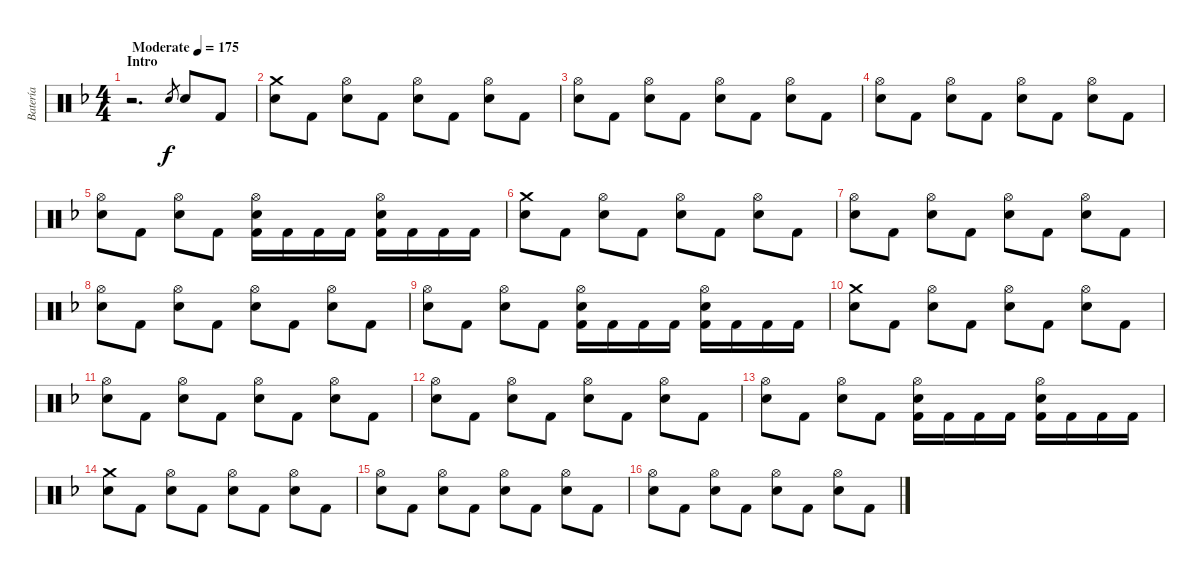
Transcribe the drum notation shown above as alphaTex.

\track ("Batería" "Batería") {instrument percussion}
\staff {score}
\articulation defaults
\ts (4 4)
\section ("" "Intro")
\tempo (175 "Moderate")
\clef neutral
\ks dminor
r.2{d dy f} "Snare (hit) 2".8{gr} "Snare (hit) 2".8 "Kick (hit) 2".8 |
("Crash medium (hit)" "Snare (hit) 2").8 "Kick (hit) 2".8 ("Hi-Hat (open)" "Snare (hit) 2").8 "Kick (hit) 2".8 ("Hi-Hat (open)" "Snare (hit) 2").8 "Kick (hit) 2".8 ("Hi-Hat (open)" "Snare (hit) 2").8 "Kick (hit) 2".8 |
("Hi-Hat (open)" "Snare (hit) 2").8 "Kick (hit) 2".8 ("Hi-Hat (open)" "Snare (hit) 2").8 "Kick (hit) 2".8 ("Hi-Hat (open)" "Snare (hit) 2").8 "Kick (hit) 2".8 ("Hi-Hat (open)" "Snare (hit) 2").8 "Kick (hit) 2".8 |
("Hi-Hat (open)" "Snare (hit) 2").8 "Kick (hit) 2".8 ("Hi-Hat (open)" "Snare (hit) 2").8 "Kick (hit) 2".8 ("Hi-Hat (open)" "Snare (hit) 2").8 "Kick (hit) 2".8 ("Hi-Hat (open)" "Snare (hit) 2").8 "Kick (hit) 2".8 |
("Hi-Hat (open)" "Snare (hit) 2").8 "Kick (hit) 2".8 ("Hi-Hat (open)" "Snare (hit) 2").8 "Kick (hit) 2".8 ("Hi-Hat (open)" "Snare (hit) 2" "Kick (hit) 2").16 "Kick (hit) 2".16 "Kick (hit) 2".16 "Kick (hit) 2".16 ("Hi-Hat (open)" "Snare (hit) 2" "Kick (hit) 2").16 "Kick (hit) 2".16 "Kick (hit) 2".16 "Kick (hit) 2".16 |
("Crash medium (hit)" "Snare (hit) 2").8 "Kick (hit) 2".8 ("Hi-Hat (open)" "Snare (hit) 2").8 "Kick (hit) 2".8 ("Hi-Hat (open)" "Snare (hit) 2").8 "Kick (hit) 2".8 ("Hi-Hat (open)" "Snare (hit) 2").8 "Kick (hit) 2".8 |
("Hi-Hat (open)" "Snare (hit) 2").8 "Kick (hit) 2".8 ("Hi-Hat (open)" "Snare (hit) 2").8 "Kick (hit) 2".8 ("Hi-Hat (open)" "Snare (hit) 2").8 "Kick (hit) 2".8 ("Hi-Hat (open)" "Snare (hit) 2").8 "Kick (hit) 2".8 |
("Hi-Hat (open)" "Snare (hit) 2").8 "Kick (hit) 2".8 ("Hi-Hat (open)" "Snare (hit) 2").8 "Kick (hit) 2".8 ("Hi-Hat (open)" "Snare (hit) 2").8 "Kick (hit) 2".8 ("Hi-Hat (open)" "Snare (hit) 2").8 "Kick (hit) 2".8 |
("Hi-Hat (open)" "Snare (hit) 2").8 "Kick (hit) 2".8 ("Hi-Hat (open)" "Snare (hit) 2").8 "Kick (hit) 2".8 ("Hi-Hat (open)" "Snare (hit) 2" "Kick (hit) 2").16 "Kick (hit) 2".16 "Kick (hit) 2".16 "Kick (hit) 2".16 ("Hi-Hat (open)" "Snare (hit) 2" "Kick (hit) 2").16 "Kick (hit) 2".16 "Kick (hit) 2".16 "Kick (hit) 2".16 |
("Crash medium (hit)" "Snare (hit) 2").8 "Kick (hit) 2".8 ("Hi-Hat (open)" "Snare (hit) 2").8 "Kick (hit) 2".8 ("Hi-Hat (open)" "Snare (hit) 2").8 "Kick (hit) 2".8 ("Hi-Hat (open)" "Snare (hit) 2").8 "Kick (hit) 2".8 |
("Hi-Hat (open)" "Snare (hit) 2").8 "Kick (hit) 2".8 ("Hi-Hat (open)" "Snare (hit) 2").8 "Kick (hit) 2".8 ("Hi-Hat (open)" "Snare (hit) 2").8 "Kick (hit) 2".8 ("Hi-Hat (open)" "Snare (hit) 2").8 "Kick (hit) 2".8 |
("Hi-Hat (open)" "Snare (hit) 2").8 "Kick (hit) 2".8 ("Hi-Hat (open)" "Snare (hit) 2").8 "Kick (hit) 2".8 ("Hi-Hat (open)" "Snare (hit) 2").8 "Kick (hit) 2".8 ("Hi-Hat (open)" "Snare (hit) 2").8 "Kick (hit) 2".8 |
("Hi-Hat (open)" "Snare (hit) 2").8 "Kick (hit) 2".8 ("Hi-Hat (open)" "Snare (hit) 2").8 "Kick (hit) 2".8 ("Hi-Hat (open)" "Snare (hit) 2" "Kick (hit) 2").16 "Kick (hit) 2".16 "Kick (hit) 2".16 "Kick (hit) 2".16 ("Hi-Hat (open)" "Snare (hit) 2" "Kick (hit) 2").16 "Kick (hit) 2".16 "Kick (hit) 2".16 "Kick (hit) 2".16 |
("Crash medium (hit)" "Snare (hit) 2").8 "Kick (hit) 2".8 ("Hi-Hat (open)" "Snare (hit) 2").8 "Kick (hit) 2".8 ("Hi-Hat (open)" "Snare (hit) 2").8 "Kick (hit) 2".8 ("Hi-Hat (open)" "Snare (hit) 2").8 "Kick (hit) 2".8 |
("Hi-Hat (open)" "Snare (hit) 2").8 "Kick (hit) 2".8 ("Hi-Hat (open)" "Snare (hit) 2").8 "Kick (hit) 2".8 ("Hi-Hat (open)" "Snare (hit) 2").8 "Kick (hit) 2".8 ("Hi-Hat (open)" "Snare (hit) 2").8 "Kick (hit) 2".8 |
("Hi-Hat (open)" "Snare (hit) 2").8 "Kick (hit) 2".8 ("Hi-Hat (open)" "Snare (hit) 2").8 "Kick (hit) 2".8 ("Hi-Hat (open)" "Snare (hit) 2").8 "Kick (hit) 2".8 ("Hi-Hat (open)" "Snare (hit) 2").8 "Kick (hit) 2".8
